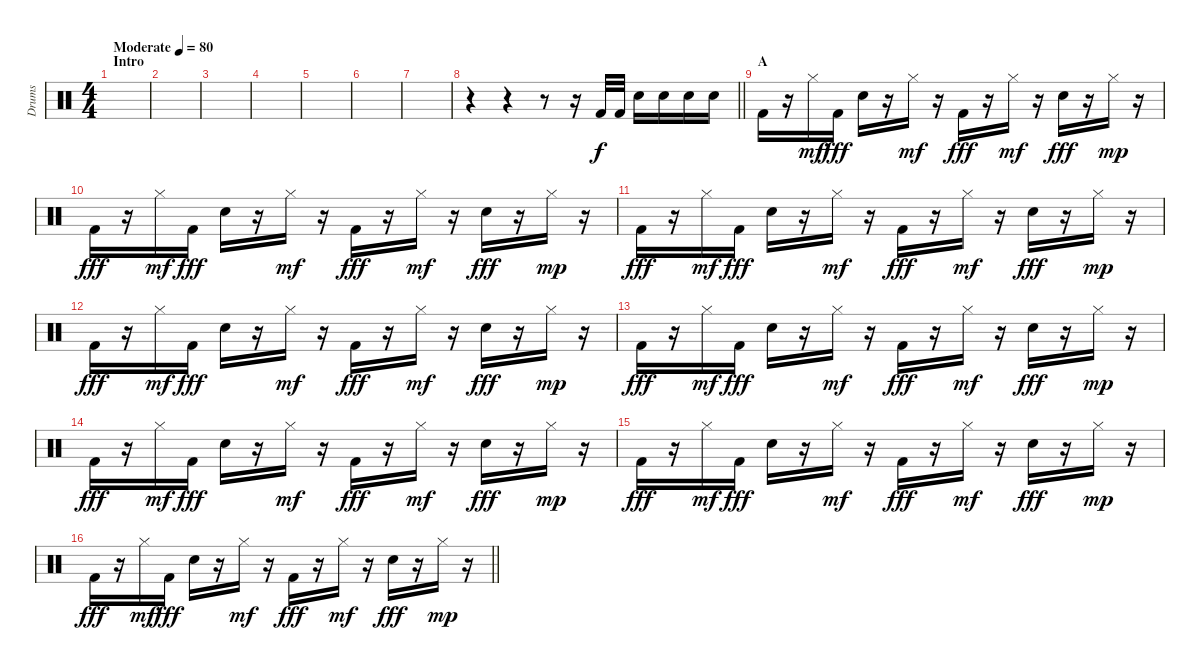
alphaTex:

\track ("Drums" "Drums") {instrument percussion}
\staff
\articulation defaults
\ts (4 4)
\section ("" "Intro")
\tempo (80 "Moderate")
\clef neutral
\ks c
|
|
|
|
|
|
|
\barLineRight lightlight
r.4 r.4 r.8 r.16 "Kick (hit) 2".32 "Kick (hit) 2".32 "Electric Snare (hit)".16 "Electric Snare (hit)".16 "Electric Snare (hit)".16 "Electric Snare (hit)".16 |
\section ("" "A")
"Kick (hit) 2".16 r.16 "Hi-Hat (closed)".16{dy mf} "Kick (hit) 2".16{dy fff} "Electric Snare (hit)".16 r.16 "Hi-Hat (closed)".16{dy mf} r.16 "Kick (hit) 2".16{dy fff} r.16 "Hi-Hat (closed)".16{dy mf} r.16 "Electric Snare (hit)".16{dy fff} r.16 "Hi-Hat (closed)".16{dy mp} r.16 |
"Kick (hit) 2".16{dy fff} r.16 "Hi-Hat (closed)".16{dy mf} "Kick (hit) 2".16{dy fff} "Electric Snare (hit)".16 r.16 "Hi-Hat (closed)".16{dy mf} r.16 "Kick (hit) 2".16{dy fff} r.16 "Hi-Hat (closed)".16{dy mf} r.16 "Electric Snare (hit)".16{dy fff} r.16 "Hi-Hat (closed)".16{dy mp} r.16 |
"Kick (hit) 2".16{dy fff} r.16 "Hi-Hat (closed)".16{dy mf} "Kick (hit) 2".16{dy fff} "Electric Snare (hit)".16 r.16 "Hi-Hat (closed)".16{dy mf} r.16 "Kick (hit) 2".16{dy fff} r.16 "Hi-Hat (closed)".16{dy mf} r.16 "Electric Snare (hit)".16{dy fff} r.16 "Hi-Hat (closed)".16{dy mp} r.16 |
"Kick (hit) 2".16{dy fff} r.16 "Hi-Hat (closed)".16{dy mf} "Kick (hit) 2".16{dy fff} "Electric Snare (hit)".16 r.16 "Hi-Hat (closed)".16{dy mf} r.16 "Kick (hit) 2".16{dy fff} r.16 "Hi-Hat (closed)".16{dy mf} r.16 "Electric Snare (hit)".16{dy fff} r.16 "Hi-Hat (closed)".16{dy mp} r.16 |
"Kick (hit) 2".16{dy fff} r.16 "Hi-Hat (closed)".16{dy mf} "Kick (hit) 2".16{dy fff} "Electric Snare (hit)".16 r.16 "Hi-Hat (closed)".16{dy mf} r.16 "Kick (hit) 2".16{dy fff} r.16 "Hi-Hat (closed)".16{dy mf} r.16 "Electric Snare (hit)".16{dy fff} r.16 "Hi-Hat (closed)".16{dy mp} r.16 |
"Kick (hit) 2".16{dy fff} r.16 "Hi-Hat (closed)".16{dy mf} "Kick (hit) 2".16{dy fff} "Electric Snare (hit)".16 r.16 "Hi-Hat (closed)".16{dy mf} r.16 "Kick (hit) 2".16{dy fff} r.16 "Hi-Hat (closed)".16{dy mf} r.16 "Electric Snare (hit)".16{dy fff} r.16 "Hi-Hat (closed)".16{dy mp} r.16 |
"Kick (hit) 2".16{dy fff} r.16 "Hi-Hat (closed)".16{dy mf} "Kick (hit) 2".16{dy fff} "Electric Snare (hit)".16 r.16 "Hi-Hat (closed)".16{dy mf} r.16 "Kick (hit) 2".16{dy fff} r.16 "Hi-Hat (closed)".16{dy mf} r.16 "Electric Snare (hit)".16{dy fff} r.16 "Hi-Hat (closed)".16{dy mp} r.16 |
\barLineRight lightlight "Kick (hit) 2".16{dy fff}
r.16 "Hi-Hat (closed)".16{dy mf} "Kick (hit) 2".16{dy fff} "Electric Snare (hit)".16 r.16 "Hi-Hat (closed)".16{dy mf} r.16 "Kick (hit) 2".16{dy fff} r.16 "Hi-Hat (closed)".16{dy mf} r.16 "Electric Snare (hit)".16{dy fff} r.16 "Hi-Hat (closed)".16{dy mp} r.16
